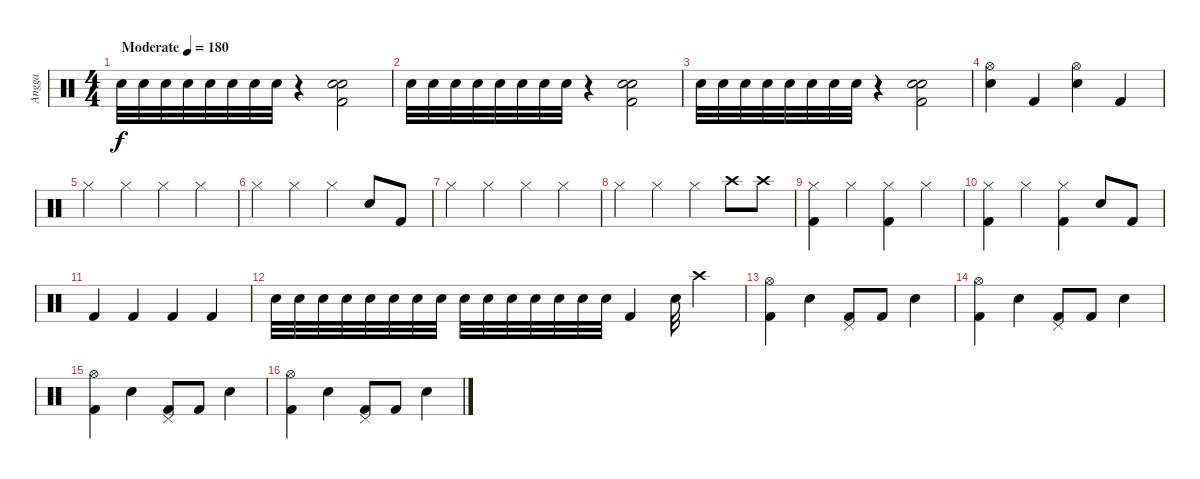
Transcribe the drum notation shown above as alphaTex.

\track ("Angga" "Angga") {instrument percussion}
\staff {score}
\articulation defaults
\ts (4 4)
\tempo (180 "Moderate")
\clef neutral
\ks c "Electric Snare (hit)".32{dy f} "Electric Snare (hit)".32 "Electric Snare (hit)".32 "Electric Snare (hit)".32 "Electric Snare (hit)".32 "Electric Snare (hit)".32 "Electric Snare (hit)".32 "Electric Snare (hit)".32
r.4 ("Kick (hit) 2" "Snare (hit) 2" "Electric Snare (hit)").2 |
"Electric Snare (hit)".32 "Electric Snare (hit)".32 "Electric Snare (hit)".32 "Electric Snare (hit)".32 "Electric Snare (hit)".32 "Electric Snare (hit)".32 "Electric Snare (hit)".32 "Electric Snare (hit)".32 r.4 ("Kick (hit) 2" "Snare (hit) 2" "Electric Snare (hit)").2 |
"Electric Snare (hit)".32 "Electric Snare (hit)".32 "Electric Snare (hit)".32 "Electric Snare (hit)".32 "Electric Snare (hit)".32 "Electric Snare (hit)".32 "Electric Snare (hit)".32 "Electric Snare (hit)".32 r.4 ("Kick (hit) 2" "Snare (hit) 2" "Electric Snare (hit)").2 |
("Snare (hit) 2" "Hi-Hat (open)").4 "Kick (hit) 2".4 ("Hi-Hat (open)" "Snare (hit) 2").4 "Kick (hit) 2".4 |
"Hi-Hat (closed)".4 "Hi-Hat (closed)".4 "Hi-Hat (closed)".4 "Hi-Hat (closed)".4 |
"Hi-Hat (closed)".4 "Hi-Hat (closed)".4 "Hi-Hat (closed)".4 "Snare (hit) 2".8 "Kick (hit) 2".8 |
"Hi-Hat (closed)".4 "Hi-Hat (closed)".4 "Hi-Hat (closed)".4 "Hi-Hat (closed)".4 |
"Hi-Hat (closed)".4 "Hi-Hat (closed)".4 "Hi-Hat (closed)".4 "Crash high (hit)".8 "Crash high (hit)".8 |
("Hi-Hat (closed)" "Kick (hit) 2").4 "Hi-Hat (closed)".4 ("Hi-Hat (closed)" "Kick (hit) 2").4 "Hi-Hat (closed)".4 |
("Hi-Hat (closed)" "Kick (hit) 2").4 "Hi-Hat (closed)".4 ("Hi-Hat (closed)" "Kick (hit) 2").4 "Snare (hit) 2".8 "Kick (hit) 2".8 |
"Kick (hit) 2".4 "Kick (hit) 2".4 "Kick (hit) 2".4 "Kick (hit) 2".4 |
"Snare (hit) 2".32 "Snare (hit) 2".32 "Snare (hit) 2".32 "Snare (hit) 2".32 "Snare (hit) 2".32 "Snare (hit) 2".32 "Snare (hit) 2".32 "Snare (hit) 2".32 "Snare (hit) 2".32 "Snare (hit) 2".32 "Snare (hit) 2".32 "Snare (hit) 2".32 "Snare (hit) 2".32 "Snare (hit) 2".32 "Snare (hit) 2".32 "Kick (hit) 2".4 "Snare (hit) 2".32 "Crash high (hit)".4 |
("Kick (hit) 2" "Hi-Hat (open)").4 "Snare (hit) 2".4 ("Kick (hit) 2" "Pedal Hi-Hat (hit)").8 "Kick (hit) 2".8 "Snare (hit) 2".4 |
("Kick (hit) 2" "Hi-Hat (open)").4 "Snare (hit) 2".4 ("Kick (hit) 2" "Pedal Hi-Hat (hit)").8 "Kick (hit) 2".8 "Snare (hit) 2".4 |
("Kick (hit) 2" "Hi-Hat (open)").4 "Snare (hit) 2".4 ("Kick (hit) 2" "Pedal Hi-Hat (hit)").8 "Kick (hit) 2".8 "Snare (hit) 2".4 |
("Kick (hit) 2" "Hi-Hat (open)").4 "Snare (hit) 2".4 ("Kick (hit) 2" "Pedal Hi-Hat (hit)").8 "Kick (hit) 2".8 "Snare (hit) 2".4
